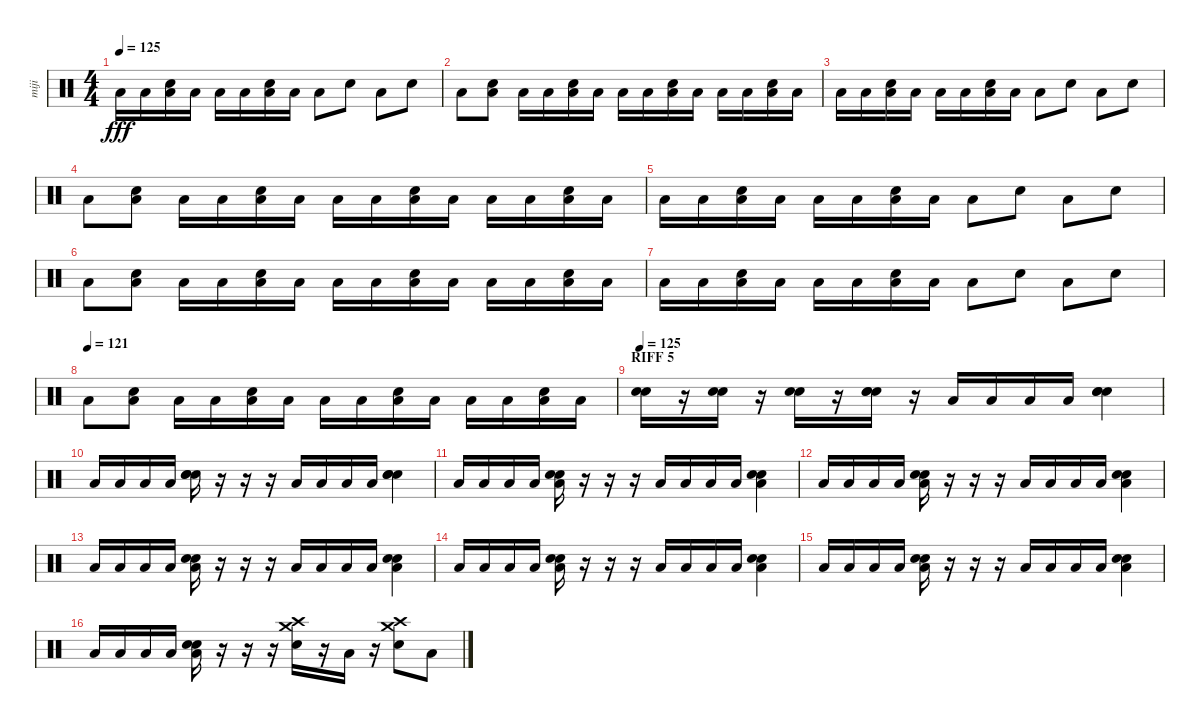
\track ("miji" "miji") {instrument percussion}
\staff {score}
\articulation defaults
\ts (4 4)
\tempo 125
\clef neutral
\ks c "Low Floor Tom (hit)".16{dy fff} "Low Floor Tom (hit)".16
("Low Floor Tom (hit)" "Electric Snare (hit)").16 "Low Floor Tom (hit)".16 "Low Floor Tom (hit)".16 "Low Floor Tom (hit)".16 ("Low Floor Tom (hit)" "Electric Snare (hit)").16 "Low Floor Tom (hit)".16 "Low Floor Tom (hit)".8 "Electric Snare (hit)".8 "Low Floor Tom (hit)".8 "Electric Snare (hit)".8 |
"Low Tom (hit)".8 ("Low Tom (hit)" "Electric Snare (hit)").8 "Low Tom (hit)".16 "Low Floor Tom (hit)".16 ("Low Floor Tom (hit)" "Electric Snare (hit)").16 "Low Floor Tom (hit)".16 "Low Floor Tom (hit)".16 "Low Floor Tom (hit)".16 ("Low Floor Tom (hit)" "Electric Snare (hit)").16 "Low Floor Tom (hit)".16 "Low Floor Tom (hit)".16 "Low Floor Tom (hit)".16 ("Low Floor Tom (hit)" "Electric Snare (hit)").16 "Low Floor Tom (hit)".16 |
"Low Floor Tom (hit)".16 "Low Floor Tom (hit)".16 ("Low Floor Tom (hit)" "Electric Snare (hit)").16 "Low Floor Tom (hit)".16 "Low Floor Tom (hit)".16 "Low Floor Tom (hit)".16 ("Low Floor Tom (hit)" "Electric Snare (hit)").16 "Low Floor Tom (hit)".16 "Low Floor Tom (hit)".8 "Electric Snare (hit)".8 "Low Floor Tom (hit)".8 "Electric Snare (hit)".8 |
"Low Tom (hit)".8 ("Low Tom (hit)" "Electric Snare (hit)").8 "Low Tom (hit)".16 "Low Floor Tom (hit)".16 ("Low Floor Tom (hit)" "Electric Snare (hit)").16 "Low Floor Tom (hit)".16 "Low Floor Tom (hit)".16 "Low Floor Tom (hit)".16 ("Low Floor Tom (hit)" "Electric Snare (hit)").16 "Low Floor Tom (hit)".16 "Low Floor Tom (hit)".16 "Low Floor Tom (hit)".16 ("Low Floor Tom (hit)" "Electric Snare (hit)").16 "Low Floor Tom (hit)".16 |
"Low Floor Tom (hit)".16 "Low Floor Tom (hit)".16 ("Low Floor Tom (hit)" "Electric Snare (hit)").16 "Low Floor Tom (hit)".16 "Low Floor Tom (hit)".16 "Low Floor Tom (hit)".16 ("Low Floor Tom (hit)" "Electric Snare (hit)").16 "Low Floor Tom (hit)".16 "Low Floor Tom (hit)".8 "Electric Snare (hit)".8 "Low Floor Tom (hit)".8 "Electric Snare (hit)".8 |
"Low Tom (hit)".8 ("Low Tom (hit)" "Electric Snare (hit)").8 "Low Tom (hit)".16 "Low Floor Tom (hit)".16 ("Low Floor Tom (hit)" "Electric Snare (hit)").16 "Low Floor Tom (hit)".16 "Low Floor Tom (hit)".16 "Low Floor Tom (hit)".16 ("Low Floor Tom (hit)" "Electric Snare (hit)").16 "Low Floor Tom (hit)".16 "Low Floor Tom (hit)".16 "Low Floor Tom (hit)".16 ("Low Floor Tom (hit)" "Electric Snare (hit)").16 "Low Floor Tom (hit)".16 |
"Low Floor Tom (hit)".16 "Low Floor Tom (hit)".16 ("Low Floor Tom (hit)" "Electric Snare (hit)").16 "Low Floor Tom (hit)".16 "Low Floor Tom (hit)".16 "Low Floor Tom (hit)".16 ("Low Floor Tom (hit)" "Electric Snare (hit)").16 "Low Floor Tom (hit)".16 "Low Floor Tom (hit)".8 "Electric Snare (hit)".8 "Low Floor Tom (hit)".8 "Electric Snare (hit)".8 |
\tempo (121)
"Low Tom (hit)".8 ("Low Tom (hit)" "Electric Snare (hit)").8 "Low Tom (hit)".16 "Low Floor Tom (hit)".16 ("Low Floor Tom (hit)" "Electric Snare (hit)").16 "Low Floor Tom (hit)".16 "Low Floor Tom (hit)".16 "Low Floor Tom (hit)".16 ("Low Floor Tom (hit)" "Electric Snare (hit)").16 "Low Floor Tom (hit)".16 "Low Floor Tom (hit)".16 "Low Floor Tom (hit)".16 ("Low Floor Tom (hit)" "Electric Snare (hit)").16 "Low Floor Tom (hit)".16 |
\section ("" "RIFF 5")
\tempo 125
("Electric Snare (hit)" "Electric Snare (hit)").16 r.16 ("Electric Snare (hit)" "Electric Snare (hit)").16 r.16 ("Electric Snare (hit)" "Electric Snare (hit)").16 r.16 ("Electric Snare (hit)" "Electric Snare (hit)" "Electric Snare (hit)").16 r.16 "Low Floor Tom (hit)".16 "Low Floor Tom (hit)".16 "Low Floor Tom (hit)".16 "Low Floor Tom (hit)".16 ("Electric Snare (hit)" "Electric Snare (hit)" "Electric Snare (hit)").4 |
"Low Floor Tom (hit)".16 "Low Floor Tom (hit)".16 "Low Floor Tom (hit)".16 "Low Floor Tom (hit)".16 ("Electric Snare (hit)" "Electric Snare (hit)" "Electric Snare (hit)").16 r.16 r.16 r.16 "Low Floor Tom (hit)".16 "Low Floor Tom (hit)".16 "Low Floor Tom (hit)".16 "Low Floor Tom (hit)".16 ("Electric Snare (hit)" "Electric Snare (hit)" "Electric Snare (hit)").4 |
"Low Floor Tom (hit)".16 "Low Floor Tom (hit)".16 "Low Floor Tom (hit)".16 "Low Floor Tom (hit)".16 ("Low Floor Tom (hit)" "Electric Snare (hit)" "Electric Snare (hit)").16 r.16 r.16 r.16 "Low Floor Tom (hit)".16 "Low Floor Tom (hit)".16 "Low Floor Tom (hit)".16 "Low Floor Tom (hit)".16 ("Low Floor Tom (hit)" "Electric Snare (hit)" "Electric Snare (hit)").4 |
"Low Floor Tom (hit)".16 "Low Floor Tom (hit)".16 "Low Floor Tom (hit)".16 "Low Floor Tom (hit)".16 ("Low Floor Tom (hit)" "Electric Snare (hit)" "Electric Snare (hit)").16 r.16 r.16 r.16 "Low Floor Tom (hit)".16 "Low Floor Tom (hit)".16 "Low Floor Tom (hit)".16 "Low Floor Tom (hit)".16 ("Low Floor Tom (hit)" "Electric Snare (hit)" "Electric Snare (hit)").4 |
"Low Floor Tom (hit)".16 "Low Floor Tom (hit)".16 "Low Floor Tom (hit)".16 "Low Floor Tom (hit)".16 ("Low Floor Tom (hit)" "Electric Snare (hit)" "Electric Snare (hit)").16 r.16 r.16 r.16 "Low Floor Tom (hit)".16 "Low Floor Tom (hit)".16 "Low Floor Tom (hit)".16 "Low Floor Tom (hit)".16 ("Low Floor Tom (hit)" "Electric Snare (hit)" "Electric Snare (hit)").4 |
"Low Floor Tom (hit)".16 "Low Floor Tom (hit)".16 "Low Floor Tom (hit)".16 "Low Floor Tom (hit)".16 ("Low Floor Tom (hit)" "Electric Snare (hit)" "Electric Snare (hit)").16 r.16 r.16 r.16 "Low Floor Tom (hit)".16 "Low Floor Tom (hit)".16 "Low Floor Tom (hit)".16 "Low Floor Tom (hit)".16 ("Low Floor Tom (hit)" "Electric Snare (hit)" "Electric Snare (hit)").4 |
"Low Floor Tom (hit)".16 "Low Floor Tom (hit)".16 "Low Floor Tom (hit)".16 "Low Floor Tom (hit)".16 ("Low Floor Tom (hit)" "Electric Snare (hit)" "Electric Snare (hit)").16 r.16 r.16 r.16 "Low Floor Tom (hit)".16 "Low Floor Tom (hit)".16 "Low Floor Tom (hit)".16 "Low Floor Tom (hit)".16 ("Low Floor Tom (hit)" "Electric Snare (hit)" "Electric Snare (hit)").4 |
"Low Floor Tom (hit)".16 "Low Floor Tom (hit)".16 "Low Floor Tom (hit)".16 "Low Floor Tom (hit)".16 ("Low Floor Tom (hit)" "Electric Snare (hit)" "Electric Snare (hit)").16 r.16 r.16 r.16 ("Crash high (hit)" "Electric Snare (hit)" "Crash medium (hit)").16 r.16 "Low Floor Tom (hit)".16 r.16 ("Crash high (hit)" "Electric Snare (hit)" "Crash medium (hit)").8 "Low Floor Tom (hit)".8
